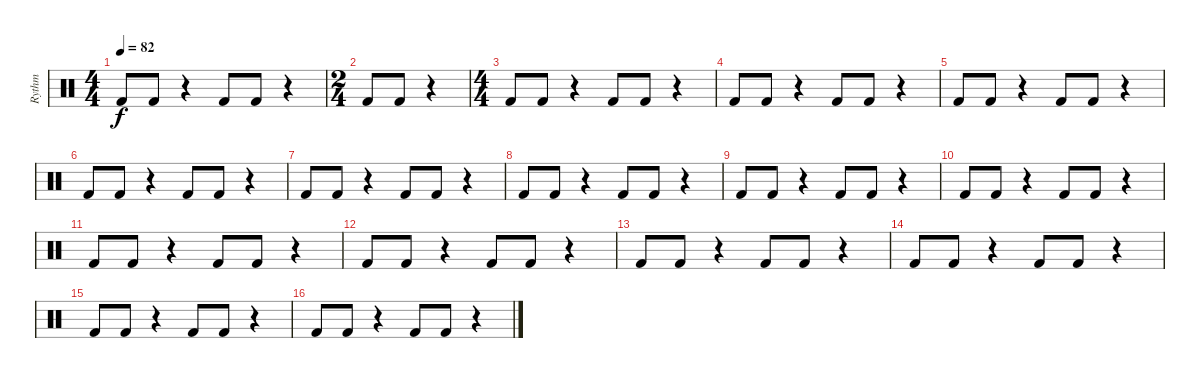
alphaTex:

\track ("Rythm" "Rythm") {instrument percussion}
\staff {score}
\articulation defaults
\ts (4 4)
\tempo 82
\clef neutral
\ks c "Kick (hit) 2".8{dy f} "Kick (hit) 2".8
r.4 "Kick (hit) 2".8 "Kick (hit) 2".8 r.4 |
\ts (2 4)
"Kick (hit) 2".8 "Kick (hit) 2".8 r.4 |
\ts (4 4)
"Kick (hit) 2".8 "Kick (hit) 2".8 r.4 "Kick (hit) 2".8 "Kick (hit) 2".8 r.4 |
"Kick (hit) 2".8 "Kick (hit) 2".8 r.4 "Kick (hit) 2".8 "Kick (hit) 2".8 r.4 |
"Kick (hit) 2".8 "Kick (hit) 2".8 r.4 "Kick (hit) 2".8 "Kick (hit) 2".8 r.4 |
"Kick (hit) 2".8 "Kick (hit) 2".8 r.4 "Kick (hit) 2".8 "Kick (hit) 2".8 r.4 |
"Kick (hit) 2".8 "Kick (hit) 2".8 r.4 "Kick (hit) 2".8 "Kick (hit) 2".8 r.4 |
"Kick (hit) 2".8 "Kick (hit) 2".8 r.4 "Kick (hit) 2".8 "Kick (hit) 2".8 r.4 |
"Kick (hit) 2".8 "Kick (hit) 2".8 r.4 "Kick (hit) 2".8 "Kick (hit) 2".8 r.4 |
"Kick (hit) 2".8 "Kick (hit) 2".8 r.4 "Kick (hit) 2".8 "Kick (hit) 2".8 r.4 |
"Kick (hit) 2".8 "Kick (hit) 2".8 r.4 "Kick (hit) 2".8 "Kick (hit) 2".8 r.4 |
"Kick (hit) 2".8 "Kick (hit) 2".8 r.4 "Kick (hit) 2".8 "Kick (hit) 2".8 r.4 |
"Kick (hit) 2".8 "Kick (hit) 2".8 r.4 "Kick (hit) 2".8 "Kick (hit) 2".8 r.4 |
"Kick (hit) 2".8 "Kick (hit) 2".8 r.4 "Kick (hit) 2".8 "Kick (hit) 2".8 r.4 |
"Kick (hit) 2".8 "Kick (hit) 2".8 r.4 "Kick (hit) 2".8 "Kick (hit) 2".8 r.4 |
"Kick (hit) 2".8 "Kick (hit) 2".8 r.4 "Kick (hit) 2".8 "Kick (hit) 2".8 r.4
